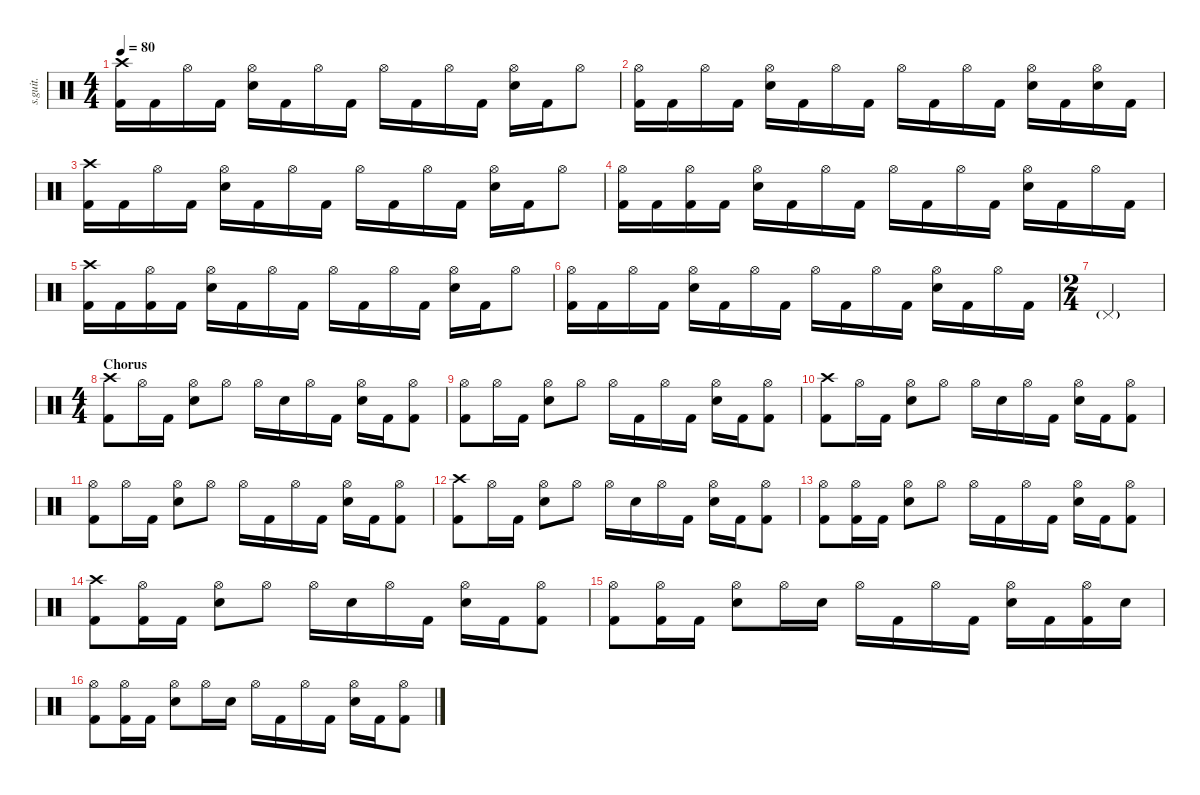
\defaultSystemsLayout 4
\hideDynamics
\bracketExtendMode nobrackets
\track ("" "s.guit.") {instrument percussion}
\staff {score}
\articulation defaults
\ts (4 4)
\tempo 80
\clef neutral
\ks c
("Crash high (hit)" "Kick (hit) 2").16{dy ff} "Kick (hit) 2".16 "Hi-Hat (open)".16 "Kick (hit) 2".16 ("Hi-Hat (open)" "Snare (hit) 2").16 "Kick (hit) 2".16 "Hi-Hat (open)".16 "Kick (hit) 2".16 "Hi-Hat (open)".16 "Kick (hit) 2".16 "Hi-Hat (open)".16 "Kick (hit) 2".16 ("Hi-Hat (open)" "Snare (hit) 2").16 "Kick (hit) 2".16 "Hi-Hat (open)".8 |
("Hi-Hat (open)" "Kick (hit) 2").16 "Kick (hit) 2".16 "Hi-Hat (open)".16 "Kick (hit) 2".16 ("Hi-Hat (open)" "Snare (hit) 2").16 "Kick (hit) 2".16 "Hi-Hat (open)".16 "Kick (hit) 2".16 "Hi-Hat (open)".16 "Kick (hit) 2".16 "Hi-Hat (open)".16 "Kick (hit) 2".16 ("Hi-Hat (open)" "Snare (hit) 2").16 "Kick (hit) 2".16 ("Hi-Hat (open)" "Snare (hit) 2").16 "Kick (hit) 2".16 |
("Crash high (hit)" "Kick (hit) 2").16 "Kick (hit) 2".16 "Hi-Hat (open)".16 "Kick (hit) 2".16 ("Hi-Hat (open)" "Snare (hit) 2").16 "Kick (hit) 2".16 "Hi-Hat (open)".16 "Kick (hit) 2".16 "Hi-Hat (open)".16 "Kick (hit) 2".16 "Hi-Hat (open)".16 "Kick (hit) 2".16 ("Hi-Hat (open)" "Snare (hit) 2").16 "Kick (hit) 2".16 "Hi-Hat (open)".8 |
("Hi-Hat (open)" "Kick (hit) 2").16 "Kick (hit) 2".16 ("Hi-Hat (open)" "Kick (hit) 2").16 "Kick (hit) 2".16 ("Hi-Hat (open)" "Snare (hit) 2").16 "Kick (hit) 2".16 "Hi-Hat (open)".16 "Kick (hit) 2".16 "Hi-Hat (open)".16 "Kick (hit) 2".16 "Hi-Hat (open)".16 "Kick (hit) 2".16 ("Hi-Hat (open)" "Snare (hit) 2").16 "Kick (hit) 2".16 "Hi-Hat (open)".16 "Kick (hit) 2".16 |
("Crash high (hit)" "Kick (hit) 2").16 "Kick (hit) 2".16 ("Hi-Hat (open)" "Kick (hit) 2").16 "Kick (hit) 2".16 ("Hi-Hat (open)" "Snare (hit) 2").16 "Kick (hit) 2".16 "Hi-Hat (open)".16 "Kick (hit) 2".16 "Hi-Hat (open)".16 "Kick (hit) 2".16 "Hi-Hat (open)".16 "Kick (hit) 2".16 ("Hi-Hat (open)" "Snare (hit) 2").16 "Kick (hit) 2".16 "Hi-Hat (open)".8 |
("Hi-Hat (open)" "Kick (hit) 2").16 "Kick (hit) 2".16 "Hi-Hat (open)".16 "Kick (hit) 2".16 ("Hi-Hat (open)" "Snare (hit) 2").16 "Kick (hit) 2".16 "Hi-Hat (open)".16 "Kick (hit) 2".16 "Hi-Hat (open)".16 "Kick (hit) 2".16 "Hi-Hat (open)".16 "Kick (hit) 2".16 ("Hi-Hat (open)" "Snare (hit) 2").16 "Kick (hit) 2".16 "Hi-Hat (open)".16 "Kick (hit) 2".16 |
\ts (2 4)
\beaming (8 2 2 2 2)
"Pedal Hi-Hat (hit)"{g}.2 |
\ts (4 4)
\beaming (8 2 2 2 2)
\section ("" "Chorus")
("Crash high (hit)" "Kick (hit) 2").8 "Hi-Hat (open)".16 "Kick (hit) 2".16 ("Hi-Hat (open)" "Snare (hit) 2").8 "Hi-Hat (open)".8 "Hi-Hat (open)".16 "Snare (hit) 2".16 "Hi-Hat (open)".16 "Kick (hit) 2".16 ("Hi-Hat (open)" "Snare (hit) 2").16 "Kick (hit) 2".16 ("Hi-Hat (open)" "Kick (hit) 2").8 |
("Hi-Hat (open)" "Kick (hit) 2").8 "Hi-Hat (open)".16 "Kick (hit) 2".16 ("Hi-Hat (open)" "Snare (hit) 2").8 "Hi-Hat (open)".8 "Hi-Hat (open)".16 "Kick (hit) 2".16 "Hi-Hat (open)".16 "Kick (hit) 2".16 ("Hi-Hat (open)" "Snare (hit) 2").16 "Kick (hit) 2".16 ("Hi-Hat (open)" "Kick (hit) 2").8 |
("Crash high (hit)" "Kick (hit) 2").8 "Hi-Hat (open)".16 "Kick (hit) 2".16 ("Hi-Hat (open)" "Snare (hit) 2").8 "Hi-Hat (open)".8 "Hi-Hat (open)".16 "Snare (hit) 2".16 "Hi-Hat (open)".16 "Kick (hit) 2".16 ("Hi-Hat (open)" "Snare (hit) 2").16 "Kick (hit) 2".16 ("Hi-Hat (open)" "Kick (hit) 2").8 |
("Hi-Hat (open)" "Kick (hit) 2").8 "Hi-Hat (open)".16 "Kick (hit) 2".16 ("Hi-Hat (open)" "Snare (hit) 2").8 "Hi-Hat (open)".8 "Hi-Hat (open)".16 "Kick (hit) 2".16 "Hi-Hat (open)".16 "Kick (hit) 2".16 ("Hi-Hat (open)" "Snare (hit) 2").16 "Kick (hit) 2".16 ("Hi-Hat (open)" "Kick (hit) 2").8 |
("Crash high (hit)" "Kick (hit) 2").8 "Hi-Hat (open)".16 "Kick (hit) 2".16 ("Hi-Hat (open)" "Snare (hit) 2").8 "Hi-Hat (open)".8 "Hi-Hat (open)".16 "Snare (hit) 2".16 "Hi-Hat (open)".16 "Kick (hit) 2".16 ("Hi-Hat (open)" "Snare (hit) 2").16 "Kick (hit) 2".16 ("Hi-Hat (open)" "Kick (hit) 2").8 |
("Hi-Hat (open)" "Kick (hit) 2").8 ("Hi-Hat (open)" "Kick (hit) 2").16 "Kick (hit) 2".16 ("Hi-Hat (open)" "Snare (hit) 2").8 "Hi-Hat (open)".8 "Hi-Hat (open)".16 "Kick (hit) 2".16 "Hi-Hat (open)".16 "Kick (hit) 2".16 ("Hi-Hat (open)" "Snare (hit) 2").16 "Kick (hit) 2".16 ("Hi-Hat (open)" "Kick (hit) 2").8 |
("Crash high (hit)" "Kick (hit) 2").8 ("Hi-Hat (open)" "Kick (hit) 2").16 "Kick (hit) 2".16 ("Hi-Hat (open)" "Snare (hit) 2").8 "Hi-Hat (open)".8 "Hi-Hat (open)".16 "Snare (hit) 2".16 "Hi-Hat (open)".16 "Kick (hit) 2".16 ("Hi-Hat (open)" "Snare (hit) 2").16 "Kick (hit) 2".16 ("Hi-Hat (open)" "Kick (hit) 2").8 |
("Hi-Hat (open)" "Kick (hit) 2").8 ("Hi-Hat (open)" "Kick (hit) 2").16 "Kick (hit) 2".16 ("Hi-Hat (open)" "Snare (hit) 2").8 "Hi-Hat (open)".16 "Snare (hit) 2".16 "Hi-Hat (open)".16 "Kick (hit) 2".16 "Hi-Hat (open)".16 "Kick (hit) 2".16 ("Hi-Hat (open)" "Snare (hit) 2").16 "Kick (hit) 2".16 ("Hi-Hat (open)" "Kick (hit) 2").16 "Snare (hit) 2".16 |
("Hi-Hat (open)" "Kick (hit) 2").8 ("Hi-Hat (open)" "Kick (hit) 2").16 "Kick (hit) 2".16 ("Hi-Hat (open)" "Snare (hit) 2").8 "Hi-Hat (open)".16 "Snare (hit) 2".16 "Hi-Hat (open)".16 "Kick (hit) 2".16 "Hi-Hat (open)".16 "Kick (hit) 2".16 ("Hi-Hat (open)" "Snare (hit) 2").16 "Kick (hit) 2".16 ("Hi-Hat (open)" "Kick (hit) 2").8
